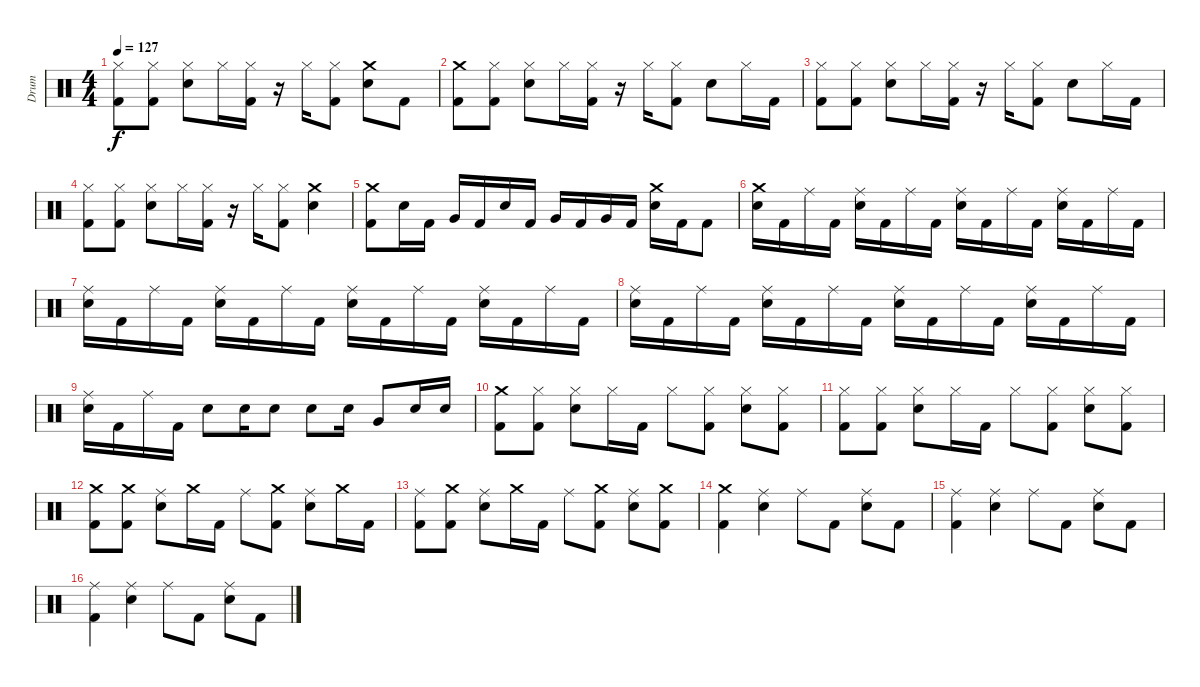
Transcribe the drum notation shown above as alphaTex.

\track ("Drum" "Drum") {instrument percussion}
\staff {score}
\articulation defaults
\ts (4 4)
\tempo 127
\clef neutral
\ks c
("Kick (hit) 2" "Hi-Hat (closed)").8{dy f} ("Hi-Hat (closed)" "Kick (hit) 2").8 ("Hi-Hat (closed)" "Snare (hit) 2").8 "Hi-Hat (closed)".16 ("Hi-Hat (closed)" "Kick (hit) 2").16 r.16 "Hi-Hat (closed)".16 ("Hi-Hat (closed)" "Kick (hit) 2").8 ("Crash medium (hit)" "Snare (hit) 2").8 "Kick (hit) 2".8 |
("Crash medium (hit)" "Kick (hit) 2").8 ("Hi-Hat (closed)" "Kick (hit) 2").8 ("Hi-Hat (closed)" "Snare (hit) 2").8 "Hi-Hat (closed)".16 ("Hi-Hat (closed)" "Kick (hit) 2").16 r.16 "Hi-Hat (closed)".16 ("Hi-Hat (closed)" "Kick (hit) 2").8 "Snare (hit) 2".8 "Hi-Hat (closed)".16 "Kick (hit) 2".16 |
("Kick (hit) 2" "Hi-Hat (closed)").8 ("Hi-Hat (closed)" "Kick (hit) 2").8 ("Hi-Hat (closed)" "Snare (hit) 2").8 "Hi-Hat (closed)".16 ("Hi-Hat (closed)" "Kick (hit) 2").16 r.16 "Hi-Hat (closed)".16 ("Hi-Hat (closed)" "Kick (hit) 2").8 "Snare (hit) 2".8 "Hi-Hat (closed)".16 "Kick (hit) 2".16 |
("Kick (hit) 2" "Hi-Hat (closed)").8 ("Hi-Hat (closed)" "Kick (hit) 2").8 ("Hi-Hat (closed)" "Snare (hit) 2").8 "Hi-Hat (closed)".16 ("Hi-Hat (closed)" "Kick (hit) 2").16 r.16 "Hi-Hat (closed)".16 ("Hi-Hat (closed)" "Kick (hit) 2").8 ("Crash medium (hit)" "Snare (hit) 2").4 |
("Crash medium (hit)" "Kick (hit) 2").8 "Snare (hit) 2".16 "Kick (hit) 2".16 "Very Low Tom (hit)".16 "Kick (hit) 2".16 "Snare (hit) 2".16 "Kick (hit) 2".16 "Very Low Tom (hit)".16 "Kick (hit) 2".16 "Very Low Tom (hit)".16 "Kick (hit) 2".16 ("Snare (hit) 2" "Crash medium (hit)").16 "Kick (hit) 2".16 "Kick (hit) 2".8 |
("Crash medium (hit)" "Snare (hit) 2").16 "Kick (hit) 2".16 "Ride (middle)".16 "Kick (hit) 2".16 ("Ride (middle)" "Snare (hit) 2").16 "Kick (hit) 2".16 "Ride (middle)".16 "Kick (hit) 2".16 ("Ride (middle)" "Snare (hit) 2").16 "Kick (hit) 2".16 "Ride (middle)".16 "Kick (hit) 2".16 ("Ride (middle)" "Snare (hit) 2").16 "Kick (hit) 2".16 "Ride (middle)".16 "Kick (hit) 2".16 |
("Snare (hit) 2" "Ride (middle)").16 "Kick (hit) 2".16 "Ride (middle)".16 "Kick (hit) 2".16 ("Ride (middle)" "Snare (hit) 2").16 "Kick (hit) 2".16 "Ride (middle)".16 "Kick (hit) 2".16 ("Ride (middle)" "Snare (hit) 2").16 "Kick (hit) 2".16 "Ride (middle)".16 "Kick (hit) 2".16 ("Ride (middle)" "Snare (hit) 2").16 "Kick (hit) 2".16 "Ride (middle)".16 "Kick (hit) 2".16 |
("Snare (hit) 2" "Ride (middle)").16 "Kick (hit) 2".16 "Ride (middle)".16 "Kick (hit) 2".16 ("Ride (middle)" "Snare (hit) 2").16 "Kick (hit) 2".16 "Ride (middle)".16 "Kick (hit) 2".16 ("Ride (middle)" "Snare (hit) 2").16 "Kick (hit) 2".16 "Ride (middle)".16 "Kick (hit) 2".16 ("Ride (middle)" "Snare (hit) 2").16 "Kick (hit) 2".16 "Ride (middle)".16 "Kick (hit) 2".16 |
("Snare (hit) 2" "Ride (middle)").16 "Kick (hit) 2".16 "Ride (middle)".16 "Kick (hit) 2".16 "Snare (hit) 2".8 "Snare (hit) 2".16 "Snare (hit) 2".8 "Snare (hit) 2".8 "Snare (hit) 2".16 "Very Low Tom (hit)".8 "Snare (hit) 2".16 "Snare (hit) 2".16 |
("Crash medium (hit)" "Kick (hit) 2").8 ("Hi-Hat (closed)" "Kick (hit) 2").8 ("Hi-Hat (closed)" "Snare (hit) 2").8 "Hi-Hat (closed)".16 "Kick (hit) 2".16 "Hi-Hat (closed)".8 ("Hi-Hat (closed)" "Kick (hit) 2").8 ("Hi-Hat (closed)" "Snare (hit) 2").8 ("Hi-Hat (closed)" "Kick (hit) 2").8 |
("Kick (hit) 2" "Hi-Hat (closed)").8 ("Hi-Hat (closed)" "Kick (hit) 2").8 ("Hi-Hat (closed)" "Snare (hit) 2").8 "Hi-Hat (closed)".16 "Kick (hit) 2".16 "Hi-Hat (closed)".8 ("Hi-Hat (closed)" "Kick (hit) 2").8 ("Hi-Hat (closed)" "Snare (hit) 2").8 ("Hi-Hat (closed)" "Kick (hit) 2").8 |
("Crash medium (hit)" "Kick (hit) 2").8 ("Crash medium (hit)" "Kick (hit) 2").8 ("Snare (hit) 2" "Ride (middle)").8 "Crash medium (hit)".16 "Kick (hit) 2".16 "Ride (middle)".8 ("Crash medium (hit)" "Kick (hit) 2").8 ("Snare (hit) 2" "Ride (middle)").8 "Crash medium (hit)".16 "Kick (hit) 2".16 |
("Kick (hit) 2" "Ride (middle)").8 ("Crash medium (hit)" "Kick (hit) 2").8 ("Snare (hit) 2" "Ride (middle)").8 "Crash medium (hit)".16 "Kick (hit) 2".16 "Ride (middle)".8 ("Crash medium (hit)" "Kick (hit) 2").8 ("Snare (hit) 2" "Ride (middle)").8 ("Crash medium (hit)" "Kick (hit) 2").8 |
("Crash medium (hit)" "Kick (hit) 2").4 ("Snare (hit) 2" "Ride (middle)").4 "Ride (middle)".8 "Kick (hit) 2".8 ("Snare (hit) 2" "Ride (middle)").8 "Kick (hit) 2".8 |
("Ride (middle)" "Kick (hit) 2").4 ("Ride (middle)" "Snare (hit) 2").4 "Ride (middle)".8 "Kick (hit) 2".8 ("Ride (middle)" "Snare (hit) 2").8 "Kick (hit) 2".8 |
("Ride (middle)" "Kick (hit) 2").4 ("Ride (middle)" "Snare (hit) 2").4 "Ride (middle)".8 "Kick (hit) 2".8 ("Ride (middle)" "Snare (hit) 2").8 "Kick (hit) 2".8
